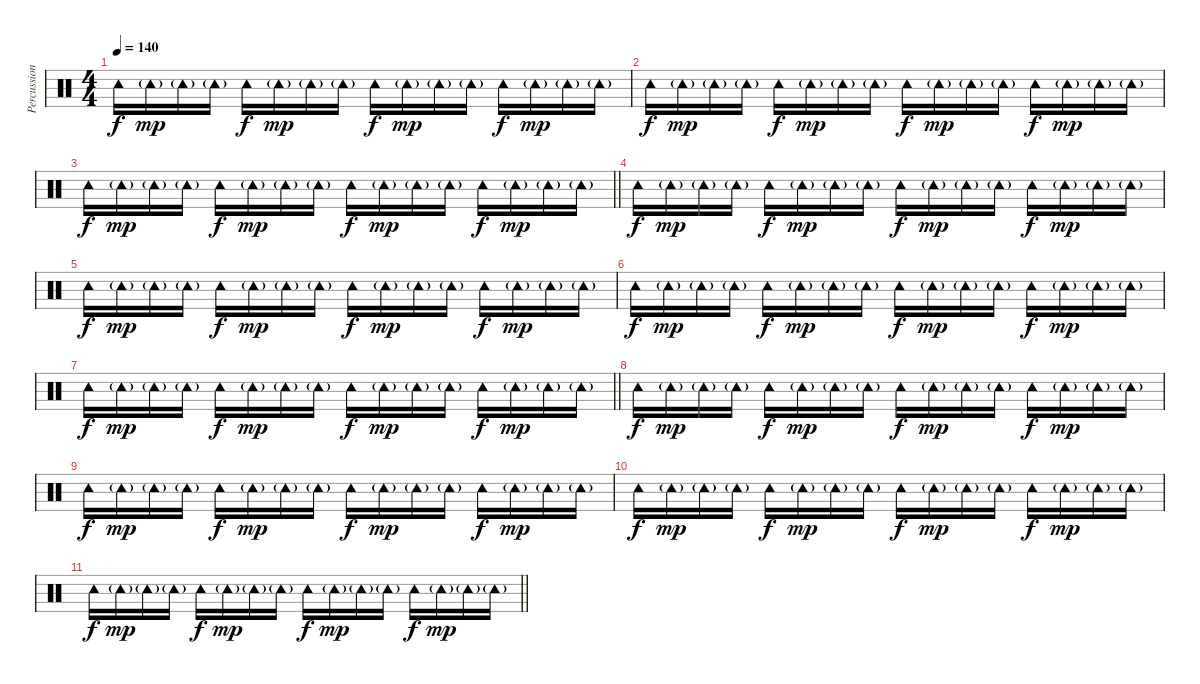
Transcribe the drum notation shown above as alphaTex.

\track ("Percussion" "Percussion") {instrument percussion}
\staff {score}
\articulation defaults
\ts (4 4)
\tempo 140
\clef neutral
\ks c "Tambourine (hit)".16{dy f} "Tambourine (hit)"{g}.16{dy mp} "Tambourine (hit)"{g}.16 "Tambourine (hit)"{g}.16 "Tambourine (hit)".16{dy f} "Tambourine (hit)"{g}.16{dy mp} "Tambourine (hit)"{g}.16 "Tambourine (hit)"{g}.16 "Tambourine (hit)".16{dy f} "Tambourine (hit)"{g}.16{dy mp} "Tambourine (hit)"{g}.16 "Tambourine (hit)"{g}.16 "Tambourine (hit)".16{dy f} "Tambourine (hit)"{g}.16{dy mp} "Tambourine (hit)"{g}.16 "Tambourine (hit)"{g}.16
|
"Tambourine (hit)".16{dy f} "Tambourine (hit)"{g}.16{dy mp} "Tambourine (hit)"{g}.16 "Tambourine (hit)"{g}.16 "Tambourine (hit)".16{dy f} "Tambourine (hit)"{g}.16{dy mp} "Tambourine (hit)"{g}.16 "Tambourine (hit)"{g}.16 "Tambourine (hit)".16{dy f} "Tambourine (hit)"{g}.16{dy mp} "Tambourine (hit)"{g}.16 "Tambourine (hit)"{g}.16 "Tambourine (hit)".16{dy f} "Tambourine (hit)"{g}.16{dy mp} "Tambourine (hit)"{g}.16 "Tambourine (hit)"{g}.16 |
\barLineRight lightlight "Tambourine (hit)".16{dy f} "Tambourine (hit)"{g}.16{dy mp} "Tambourine (hit)"{g}.16 "Tambourine (hit)"{g}.16 "Tambourine (hit)".16{dy f} "Tambourine (hit)"{g}.16{dy mp} "Tambourine (hit)"{g}.16 "Tambourine (hit)"{g}.16 "Tambourine (hit)".16{dy f} "Tambourine (hit)"{g}.16{dy mp} "Tambourine (hit)"{g}.16 "Tambourine (hit)"{g}.16 "Tambourine (hit)".16{dy f} "Tambourine (hit)"{g}.16{dy mp} "Tambourine (hit)"{g}.16 "Tambourine (hit)"{g}.16
|
"Tambourine (hit)".16{dy f} "Tambourine (hit)"{g}.16{dy mp} "Tambourine (hit)"{g}.16 "Tambourine (hit)"{g}.16 "Tambourine (hit)".16{dy f} "Tambourine (hit)"{g}.16{dy mp} "Tambourine (hit)"{g}.16 "Tambourine (hit)"{g}.16 "Tambourine (hit)".16{dy f} "Tambourine (hit)"{g}.16{dy mp} "Tambourine (hit)"{g}.16 "Tambourine (hit)"{g}.16 "Tambourine (hit)".16{dy f} "Tambourine (hit)"{g}.16{dy mp} "Tambourine (hit)"{g}.16 "Tambourine (hit)"{g}.16 |
"Tambourine (hit)".16{dy f} "Tambourine (hit)"{g}.16{dy mp} "Tambourine (hit)"{g}.16 "Tambourine (hit)"{g}.16 "Tambourine (hit)".16{dy f} "Tambourine (hit)"{g}.16{dy mp} "Tambourine (hit)"{g}.16 "Tambourine (hit)"{g}.16 "Tambourine (hit)".16{dy f} "Tambourine (hit)"{g}.16{dy mp} "Tambourine (hit)"{g}.16 "Tambourine (hit)"{g}.16 "Tambourine (hit)".16{dy f} "Tambourine (hit)"{g}.16{dy mp} "Tambourine (hit)"{g}.16 "Tambourine (hit)"{g}.16 |
"Tambourine (hit)".16{dy f} "Tambourine (hit)"{g}.16{dy mp} "Tambourine (hit)"{g}.16 "Tambourine (hit)"{g}.16 "Tambourine (hit)".16{dy f} "Tambourine (hit)"{g}.16{dy mp} "Tambourine (hit)"{g}.16 "Tambourine (hit)"{g}.16 "Tambourine (hit)".16{dy f} "Tambourine (hit)"{g}.16{dy mp} "Tambourine (hit)"{g}.16 "Tambourine (hit)"{g}.16 "Tambourine (hit)".16{dy f} "Tambourine (hit)"{g}.16{dy mp} "Tambourine (hit)"{g}.16 "Tambourine (hit)"{g}.16 |
\barLineRight lightlight "Tambourine (hit)".16{dy f} "Tambourine (hit)"{g}.16{dy mp} "Tambourine (hit)"{g}.16 "Tambourine (hit)"{g}.16 "Tambourine (hit)".16{dy f} "Tambourine (hit)"{g}.16{dy mp} "Tambourine (hit)"{g}.16 "Tambourine (hit)"{g}.16 "Tambourine (hit)".16{dy f} "Tambourine (hit)"{g}.16{dy mp} "Tambourine (hit)"{g}.16 "Tambourine (hit)"{g}.16 "Tambourine (hit)".16{dy f} "Tambourine (hit)"{g}.16{dy mp} "Tambourine (hit)"{g}.16 "Tambourine (hit)"{g}.16
|
"Tambourine (hit)".16{dy f} "Tambourine (hit)"{g}.16{dy mp} "Tambourine (hit)"{g}.16 "Tambourine (hit)"{g}.16 "Tambourine (hit)".16{dy f} "Tambourine (hit)"{g}.16{dy mp} "Tambourine (hit)"{g}.16 "Tambourine (hit)"{g}.16 "Tambourine (hit)".16{dy f} "Tambourine (hit)"{g}.16{dy mp} "Tambourine (hit)"{g}.16 "Tambourine (hit)"{g}.16 "Tambourine (hit)".16{dy f} "Tambourine (hit)"{g}.16{dy mp} "Tambourine (hit)"{g}.16 "Tambourine (hit)"{g}.16 |
"Tambourine (hit)".16{dy f} "Tambourine (hit)"{g}.16{dy mp} "Tambourine (hit)"{g}.16 "Tambourine (hit)"{g}.16 "Tambourine (hit)".16{dy f} "Tambourine (hit)"{g}.16{dy mp} "Tambourine (hit)"{g}.16 "Tambourine (hit)"{g}.16 "Tambourine (hit)".16{dy f} "Tambourine (hit)"{g}.16{dy mp} "Tambourine (hit)"{g}.16 "Tambourine (hit)"{g}.16 "Tambourine (hit)".16{dy f} "Tambourine (hit)"{g}.16{dy mp} "Tambourine (hit)"{g}.16 "Tambourine (hit)"{g}.16 |
"Tambourine (hit)".16{dy f} "Tambourine (hit)"{g}.16{dy mp} "Tambourine (hit)"{g}.16 "Tambourine (hit)"{g}.16 "Tambourine (hit)".16{dy f} "Tambourine (hit)"{g}.16{dy mp} "Tambourine (hit)"{g}.16 "Tambourine (hit)"{g}.16 "Tambourine (hit)".16{dy f} "Tambourine (hit)"{g}.16{dy mp} "Tambourine (hit)"{g}.16 "Tambourine (hit)"{g}.16 "Tambourine (hit)".16{dy f} "Tambourine (hit)"{g}.16{dy mp} "Tambourine (hit)"{g}.16 "Tambourine (hit)"{g}.16 |
\barLineRight lightlight "Tambourine (hit)".16{dy f} "Tambourine (hit)"{g}.16{dy mp} "Tambourine (hit)"{g}.16 "Tambourine (hit)"{g}.16 "Tambourine (hit)".16{dy f} "Tambourine (hit)"{g}.16{dy mp} "Tambourine (hit)"{g}.16 "Tambourine (hit)"{g}.16 "Tambourine (hit)".16{dy f} "Tambourine (hit)"{g}.16{dy mp} "Tambourine (hit)"{g}.16 "Tambourine (hit)"{g}.16 "Tambourine (hit)".16{dy f} "Tambourine (hit)"{g}.16{dy mp} "Tambourine (hit)"{g}.16 "Tambourine (hit)"{g}.16
